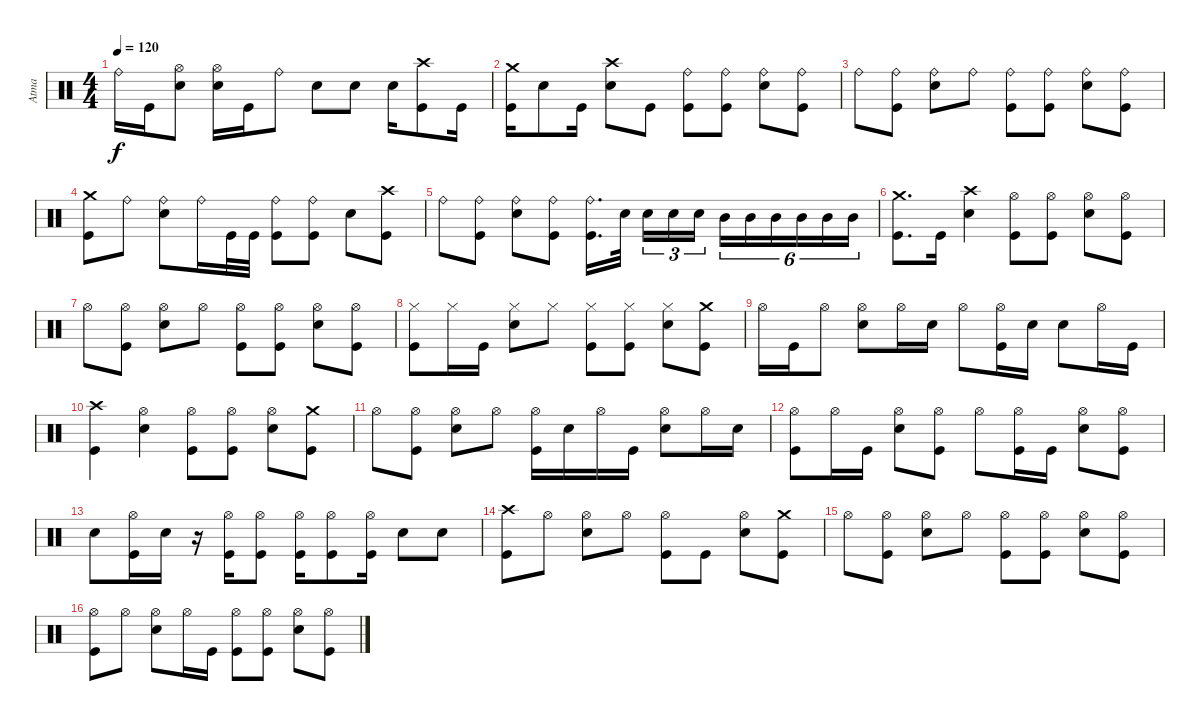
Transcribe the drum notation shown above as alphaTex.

\track ("Atma" "Atma") {instrument percussion}
\staff {score}
\articulation defaults
\ts (4 4)
\tempo 120
\clef neutral
\ks c "Ride (bell)".16{dy f} "Kick (hit)".16
("Snare (hit) 2" "Hi-Hat (open)").8 ("Snare (hit) 2" "Hi-Hat (open)").16 "Kick (hit)".16 "Ride (bell)".8 "Snare (hit) 2".8 "Snare (hit) 2".8 "Snare (hit) 2".16 ("Kick (hit)" "Crash high (hit)").8 "Kick (hit)".16 |
("Kick (hit)" "Crash medium (hit)").16 "Snare (hit) 2".8 "Kick (hit)".16 ("Snare (hit) 2" "Crash high (hit)").8 "Kick (hit)".8 ("Kick (hit)" "Ride (bell)").8 ("Kick (hit)" "Ride (bell)").8 ("Snare (hit) 2" "Ride (bell)").8 ("Kick (hit)" "Ride (bell)").8 |
"Ride (bell)".8 ("Kick (hit)" "Ride (bell)").8 ("Snare (hit) 2" "Ride (bell)").8 "Ride (bell)".8 ("Kick (hit)" "Ride (bell)").8 ("Kick (hit)" "Ride (bell)").8 ("Snare (hit) 2" "Ride (bell)").8 ("Kick (hit)" "Ride (bell)").8 |
("Kick (hit)" "Crash medium (hit)").8 "Ride (bell)".8 ("Snare (hit) 2" "Ride (bell)").8 "Ride (bell)".16 "Kick (hit)".32 "Kick (hit)".32 ("Kick (hit)" "Ride (bell)").8 ("Kick (hit)" "Ride (bell)").8 "Snare (hit) 2".8 ("Kick (hit)" "Crash high (hit)").8 |
"Ride (bell)".8 ("Kick (hit)" "Ride (bell)").8 ("Snare (hit) 2" "Ride (bell)").8 ("Kick (hit)" "Ride (bell)").8 ("Kick (hit)" "Ride (bell)").16{d} "Snare (hit) 2".32 "Snare (hit) 2".16{tu (3 2)} "Snare (hit) 2".16{tu (3 2)} "Snare (hit) 2".16{tu (3 2)} "Mid Tom (hit)".16{tu (6 4)} "Mid Tom (hit)".16{tu (6 4)} "Mid Tom (hit)".16{tu (6 4)} "Mid Tom (hit)".16{tu (6 4)} "Mid Tom (hit)".16{tu (6 4)} "Mid Tom (hit)".16{tu (6 4)} |
("Kick (hit)" "Crash medium (hit)").8{d} "Kick (hit)".16 ("Snare (hit) 2" "Crash high (hit)").4 ("Kick (hit)" "Hi-Hat (open)").8 ("Kick (hit)" "Hi-Hat (open)").8 ("Snare (hit) 2" "Hi-Hat (open)").8 ("Kick (hit)" "Hi-Hat (open)").8 |
"Hi-Hat (open)".8 ("Kick (hit)" "Hi-Hat (open)").8 ("Snare (hit) 2" "Hi-Hat (open)").8 "Hi-Hat (open)".8 ("Kick (hit)" "Hi-Hat (open)").8 ("Kick (hit)" "Hi-Hat (open)").8 ("Snare (hit) 2" "Hi-Hat (open)").8 ("Kick (hit)" "Hi-Hat (open)").8 |
("Kick (hit)" "Hi-Hat (closed)").8 "Hi-Hat (closed)".16 "Kick (hit)".16 ("Snare (hit) 2" "Hi-Hat (closed)").8 "Hi-Hat (closed)".8 ("Kick (hit)" "Hi-Hat (closed)").8 ("Kick (hit)" "Hi-Hat (closed)").8 ("Snare (hit) 2" "Hi-Hat (closed)").8 ("Kick (hit)" "Crash medium (hit)").8 |
"Hi-Hat (open)".16 "Kick (hit)".16 "Hi-Hat (open)".8 ("Snare (hit) 2" "Hi-Hat (open)").8 "Hi-Hat (open)".16 "Snare (hit) 2".16 "Hi-Hat (open)".8 ("Kick (hit)" "Hi-Hat (open)").16 "Snare (hit) 2".16 "Snare (hit) 2".8 "Hi-Hat (open)".16 "Kick (hit)".16 |
("Kick (hit)" "Crash high (hit)").4 ("Snare (hit) 2" "Hi-Hat (open)").4 ("Kick (hit)" "Hi-Hat (open)").8 ("Kick (hit)" "Hi-Hat (open)").8 ("Snare (hit) 2" "Hi-Hat (open)").8 ("Kick (hit)" "Crash medium (hit)").8 |
"Hi-Hat (open)".8 ("Kick (hit)" "Hi-Hat (open)").8 ("Snare (hit) 2" "Hi-Hat (open)").8 "Hi-Hat (open)".8 ("Kick (hit)" "Hi-Hat (open)").16 "Snare (hit) 2".16 "Hi-Hat (open)".16 "Kick (hit)".16 ("Snare (hit) 2" "Hi-Hat (open)").8 "Hi-Hat (open)".16 "Snare (hit) 2".16 |
("Kick (hit)" "Hi-Hat (open)").8 "Hi-Hat (open)".16 "Kick (hit)".16 ("Snare (hit) 2" "Hi-Hat (open)").8 ("Kick (hit)" "Hi-Hat (open)").8 "Hi-Hat (open)".8 ("Kick (hit)" "Hi-Hat (open)").16 "Kick (hit)".16 ("Snare (hit) 2" "Hi-Hat (open)").8 ("Kick (hit)" "Hi-Hat (open)").8 |
"Snare (hit) 2".8 ("Kick (hit)" "Hi-Hat (open)").16 "Snare (hit) 2".16 r.16 ("Kick (hit)" "Hi-Hat (open)").16 ("Kick (hit)" "Hi-Hat (open)").8 ("Kick (hit)" "Hi-Hat (open)").16 ("Kick (hit)" "Hi-Hat (open)").8 ("Kick (hit)" "Hi-Hat (open)").16 "Snare (hit) 2".8 "Snare (hit) 2".8 |
("Kick (hit)" "Crash high (hit)").8 "Hi-Hat (open)".8 ("Snare (hit) 2" "Hi-Hat (open)").8 "Hi-Hat (open)".8 ("Kick (hit)" "Hi-Hat (open)").8 "Kick (hit)".8 ("Snare (hit) 2" "Hi-Hat (open)").8 ("Kick (hit)" "Crash medium (hit)").8 |
"Hi-Hat (open)".8 ("Kick (hit)" "Hi-Hat (open)").8 ("Snare (hit) 2" "Hi-Hat (open)").8 "Hi-Hat (open)".8 ("Kick (hit)" "Hi-Hat (open)").8 ("Kick (hit)" "Hi-Hat (open)").8 ("Snare (hit) 2" "Hi-Hat (open)").8 ("Kick (hit)" "Hi-Hat (open)").8 |
("Kick (hit)" "Hi-Hat (open)").8 "Hi-Hat (open)".8 ("Snare (hit) 2" "Hi-Hat (open)").8 "Hi-Hat (open)".16 "Kick (hit)".16 ("Kick (hit)" "Hi-Hat (open)").8 ("Kick (hit)" "Hi-Hat (open)").8 ("Snare (hit) 2" "Hi-Hat (open)").8 ("Kick (hit)" "Hi-Hat (open)").8
